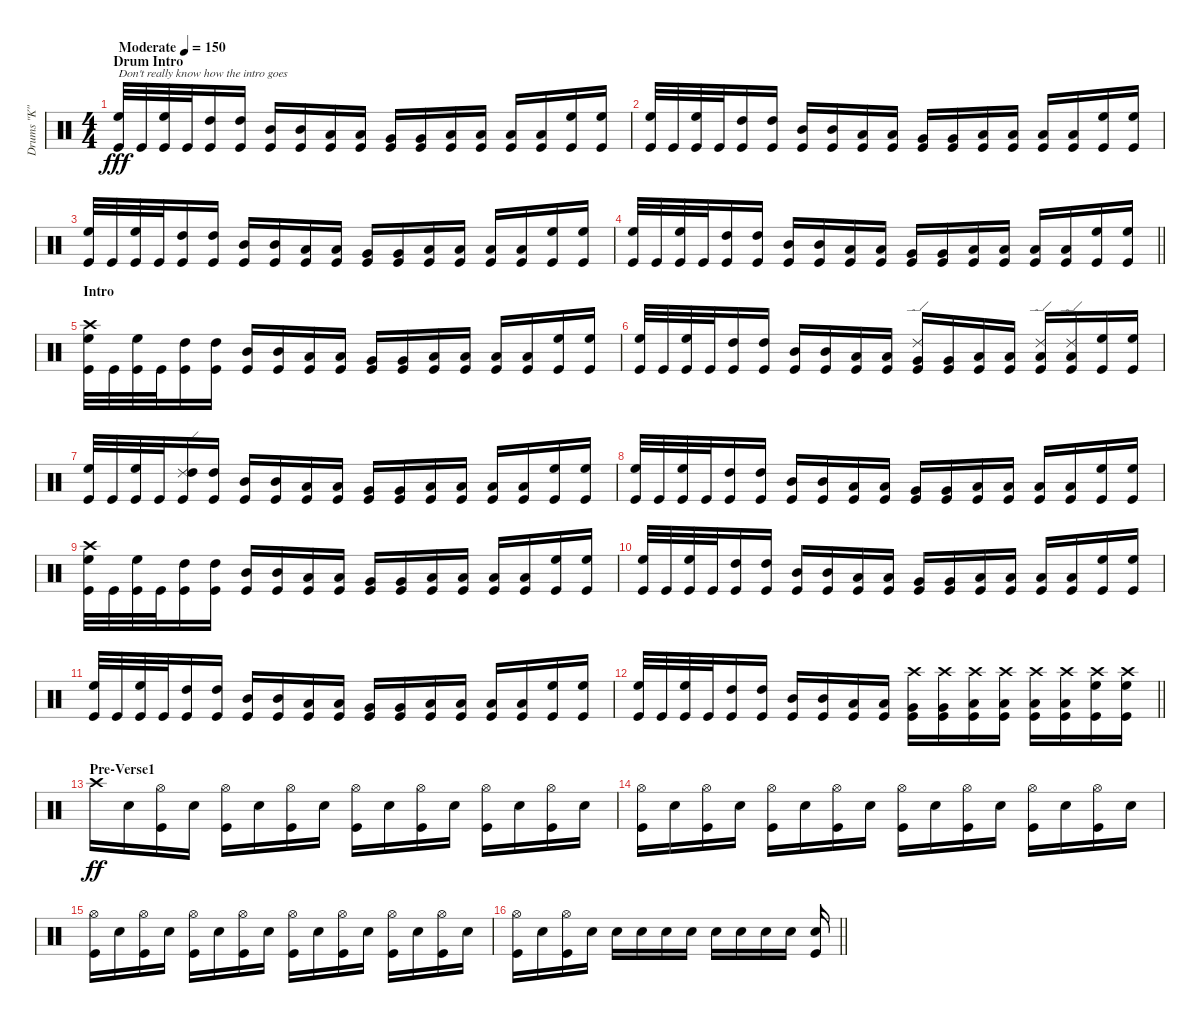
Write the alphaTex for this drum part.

\track ("Drums \"K\"" "Drums \"K\"") {instrument percussion}
\staff {score}
\articulation defaults
\ts (4 4)
\section ("" "Drum Intro")
\tempo (150 "Moderate")
\clef neutral
\ks c
("High Floor Tom (hit)" "Kick (hit)").32{txt "Don't really know how the intro goes" dy fff} "Kick (hit)".32 ("High Floor Tom (hit)" "Kick (hit)").32 "Kick (hit)".32 ("High Tom (hit)" "Kick (hit)").16 ("High Tom (hit)" "Kick (hit)").16 ("Mid Tom (hit)" "Kick (hit)").16 ("Mid Tom (hit)" "Kick (hit)").16 ("Low Tom (hit)" "Kick (hit)").16 ("Low Tom (hit)" "Kick (hit)").16 ("Very Low Tom (hit)" "Kick (hit)").16 ("Very Low Tom (hit)" "Kick (hit)").16 ("Low Floor Tom (hit)" "Kick (hit)").16 ("Low Floor Tom (hit)" "Kick (hit)").16 ("Low Floor Tom (hit)" "Kick (hit)").16 ("Low Floor Tom (hit)" "Kick (hit)").16 ("High Floor Tom (hit)" "Kick (hit)").16 ("High Floor Tom (hit)" "Kick (hit)").16 |
("High Floor Tom (hit)" "Kick (hit)").32 "Kick (hit)".32 ("High Floor Tom (hit)" "Kick (hit)").32 "Kick (hit)".32 ("High Tom (hit)" "Kick (hit)").16 ("High Tom (hit)" "Kick (hit)").16 ("Mid Tom (hit)" "Kick (hit)").16 ("Mid Tom (hit)" "Kick (hit)").16 ("Low Tom (hit)" "Kick (hit)").16 ("Low Tom (hit)" "Kick (hit)").16 ("Very Low Tom (hit)" "Kick (hit)").16 ("Very Low Tom (hit)" "Kick (hit)").16 ("Low Floor Tom (hit)" "Kick (hit)").16 ("Low Floor Tom (hit)" "Kick (hit)").16 ("Low Floor Tom (hit)" "Kick (hit)").16 ("Low Floor Tom (hit)" "Kick (hit)").16 ("High Floor Tom (hit)" "Kick (hit)").16 ("High Floor Tom (hit)" "Kick (hit)").16 |
("High Floor Tom (hit)" "Kick (hit)").32 "Kick (hit)".32 ("High Floor Tom (hit)" "Kick (hit)").32 "Kick (hit)".32 ("High Tom (hit)" "Kick (hit)").16 ("High Tom (hit)" "Kick (hit)").16 ("Mid Tom (hit)" "Kick (hit)").16 ("Mid Tom (hit)" "Kick (hit)").16 ("Low Tom (hit)" "Kick (hit)").16 ("Low Tom (hit)" "Kick (hit)").16 ("Very Low Tom (hit)" "Kick (hit)").16 ("Very Low Tom (hit)" "Kick (hit)").16 ("Low Floor Tom (hit)" "Kick (hit)").16 ("Low Floor Tom (hit)" "Kick (hit)").16 ("Low Floor Tom (hit)" "Kick (hit)").16 ("Low Floor Tom (hit)" "Kick (hit)").16 ("High Floor Tom (hit)" "Kick (hit)").16 ("High Floor Tom (hit)" "Kick (hit)").16 |
\barLineRight lightlight
("High Floor Tom (hit)" "Kick (hit)").32 "Kick (hit)".32 ("High Floor Tom (hit)" "Kick (hit)").32 "Kick (hit)".32 ("High Tom (hit)" "Kick (hit)").16 ("High Tom (hit)" "Kick (hit)").16 ("Mid Tom (hit)" "Kick (hit)").16 ("Mid Tom (hit)" "Kick (hit)").16 ("Low Tom (hit)" "Kick (hit)").16 ("Low Tom (hit)" "Kick (hit)").16 ("Very Low Tom (hit)" "Kick (hit)").16 ("Very Low Tom (hit)" "Kick (hit)").16 ("Low Floor Tom (hit)" "Kick (hit)").16 ("Low Floor Tom (hit)" "Kick (hit)").16 ("Low Floor Tom (hit)" "Kick (hit)").16 ("Low Floor Tom (hit)" "Kick (hit)").16 ("High Floor Tom (hit)" "Kick (hit)").16 ("High Floor Tom (hit)" "Kick (hit)").16 |
\section ("" "Intro")
("Crash high (hit)" "High Floor Tom (hit)" "Kick (hit)").32 "Kick (hit)".32 ("High Floor Tom (hit)" "Kick (hit)").32 "Kick (hit)".32 ("High Tom (hit)" "Kick (hit)").16 ("High Tom (hit)" "Kick (hit)").16 ("Mid Tom (hit)" "Kick (hit)").16 ("Mid Tom (hit)" "Kick (hit)").16 ("Low Tom (hit)" "Kick (hit)").16 ("Low Tom (hit)" "Kick (hit)").16 ("Very Low Tom (hit)" "Kick (hit)").16 ("Very Low Tom (hit)" "Kick (hit)").16 ("Low Floor Tom (hit)" "Kick (hit)").16 ("Low Floor Tom (hit)" "Kick (hit)").16 ("Low Floor Tom (hit)" "Kick (hit)").16 ("Low Floor Tom (hit)" "Kick (hit)").16 ("High Floor Tom (hit)" "Kick (hit)").16 ("High Floor Tom (hit)" "Kick (hit)").16 |
("High Floor Tom (hit)" "Kick (hit)").32 "Kick (hit)".32 ("High Floor Tom (hit)" "Kick (hit)").32 "Kick (hit)".32 ("High Tom (hit)" "Kick (hit)").16 ("High Tom (hit)" "Kick (hit)").16 ("Mid Tom (hit)" "Kick (hit)").16 ("Mid Tom (hit)" "Kick (hit)").16 ("Low Tom (hit)" "Kick (hit)").16 ("Low Tom (hit)" "Kick (hit)").16 ("Ride (edge) 2" "Very Low Tom (hit)" "Kick (hit)").16 ("Very Low Tom (hit)" "Kick (hit)").16 ("Low Floor Tom (hit)" "Kick (hit)").16 ("Low Floor Tom (hit)" "Kick (hit)").16 ("Ride (edge) 2" "Low Floor Tom (hit)" "Kick (hit)").16 ("Ride (edge) 2" "Low Floor Tom (hit)" "Kick (hit)").16 ("High Floor Tom (hit)" "Kick (hit)").16 ("High Floor Tom (hit)" "Kick (hit)").16 |
("High Floor Tom (hit)" "Kick (hit)").32 "Kick (hit)".32 ("High Floor Tom (hit)" "Kick (hit)").32 "Kick (hit)".32 ("Ride (edge) 2" "High Tom (hit)" "Kick (hit)").16 ("High Tom (hit)" "Kick (hit)").16 ("Mid Tom (hit)" "Kick (hit)").16 ("Mid Tom (hit)" "Kick (hit)").16 ("Low Tom (hit)" "Kick (hit)").16 ("Low Tom (hit)" "Kick (hit)").16 ("Very Low Tom (hit)" "Kick (hit)").16 ("Very Low Tom (hit)" "Kick (hit)").16 ("Low Floor Tom (hit)" "Kick (hit)").16 ("Low Floor Tom (hit)" "Kick (hit)").16 ("Low Floor Tom (hit)" "Kick (hit)").16 ("Low Floor Tom (hit)" "Kick (hit)").16 ("High Floor Tom (hit)" "Kick (hit)").16 ("High Floor Tom (hit)" "Kick (hit)").16 |
("High Floor Tom (hit)" "Kick (hit)").32 "Kick (hit)".32 ("High Floor Tom (hit)" "Kick (hit)").32 "Kick (hit)".32 ("High Tom (hit)" "Kick (hit)").16 ("High Tom (hit)" "Kick (hit)").16 ("Mid Tom (hit)" "Kick (hit)").16 ("Mid Tom (hit)" "Kick (hit)").16 ("Low Tom (hit)" "Kick (hit)").16 ("Low Tom (hit)" "Kick (hit)").16 ("Very Low Tom (hit)" "Kick (hit)").16 ("Very Low Tom (hit)" "Kick (hit)").16 ("Low Floor Tom (hit)" "Kick (hit)").16 ("Low Floor Tom (hit)" "Kick (hit)").16 ("Low Floor Tom (hit)" "Kick (hit)").16 ("Low Floor Tom (hit)" "Kick (hit)").16 ("High Floor Tom (hit)" "Kick (hit)").16 ("High Floor Tom (hit)" "Kick (hit)").16 |
("Crash high (hit)" "High Floor Tom (hit)" "Kick (hit)").32 "Kick (hit)".32 ("High Floor Tom (hit)" "Kick (hit)").32 "Kick (hit)".32 ("High Tom (hit)" "Kick (hit)").16 ("High Tom (hit)" "Kick (hit)").16 ("Mid Tom (hit)" "Kick (hit)").16 ("Mid Tom (hit)" "Kick (hit)").16 ("Low Tom (hit)" "Kick (hit)").16 ("Low Tom (hit)" "Kick (hit)").16 ("Very Low Tom (hit)" "Kick (hit)").16 ("Very Low Tom (hit)" "Kick (hit)").16 ("Low Floor Tom (hit)" "Kick (hit)").16 ("Low Floor Tom (hit)" "Kick (hit)").16 ("Low Floor Tom (hit)" "Kick (hit)").16 ("Low Floor Tom (hit)" "Kick (hit)").16 ("High Floor Tom (hit)" "Kick (hit)").16 ("High Floor Tom (hit)" "Kick (hit)").16 |
("High Floor Tom (hit)" "Kick (hit)").32 "Kick (hit)".32 ("High Floor Tom (hit)" "Kick (hit)").32 "Kick (hit)".32 ("High Tom (hit)" "Kick (hit)").16 ("High Tom (hit)" "Kick (hit)").16 ("Mid Tom (hit)" "Kick (hit)").16 ("Mid Tom (hit)" "Kick (hit)").16 ("Low Tom (hit)" "Kick (hit)").16 ("Low Tom (hit)" "Kick (hit)").16 ("Very Low Tom (hit)" "Kick (hit)").16 ("Very Low Tom (hit)" "Kick (hit)").16 ("Low Floor Tom (hit)" "Kick (hit)").16 ("Low Floor Tom (hit)" "Kick (hit)").16 ("Low Floor Tom (hit)" "Kick (hit)").16 ("Low Floor Tom (hit)" "Kick (hit)").16 ("High Floor Tom (hit)" "Kick (hit)").16 ("High Floor Tom (hit)" "Kick (hit)").16 |
("High Floor Tom (hit)" "Kick (hit)").32 "Kick (hit)".32 ("High Floor Tom (hit)" "Kick (hit)").32 "Kick (hit)".32 ("High Tom (hit)" "Kick (hit)").16 ("High Tom (hit)" "Kick (hit)").16 ("Mid Tom (hit)" "Kick (hit)").16 ("Mid Tom (hit)" "Kick (hit)").16 ("Low Tom (hit)" "Kick (hit)").16 ("Low Tom (hit)" "Kick (hit)").16 ("Very Low Tom (hit)" "Kick (hit)").16 ("Very Low Tom (hit)" "Kick (hit)").16 ("Low Floor Tom (hit)" "Kick (hit)").16 ("Low Floor Tom (hit)" "Kick (hit)").16 ("Low Floor Tom (hit)" "Kick (hit)").16 ("Low Floor Tom (hit)" "Kick (hit)").16 ("High Floor Tom (hit)" "Kick (hit)").16 ("High Floor Tom (hit)" "Kick (hit)").16 |
\barLineRight lightlight
("High Floor Tom (hit)" "Kick (hit)").32 "Kick (hit)".32 ("High Floor Tom (hit)" "Kick (hit)").32 "Kick (hit)".32 ("High Tom (hit)" "Kick (hit)").16 ("High Tom (hit)" "Kick (hit)").16 ("Mid Tom (hit)" "Kick (hit)").16 ("Mid Tom (hit)" "Kick (hit)").16 ("Low Tom (hit)" "Kick (hit)").16 ("Low Tom (hit)" "Kick (hit)").16 ("Crash high (hit)" "Very Low Tom (hit)" "Kick (hit)").16 ("Crash high (hit)" "Very Low Tom (hit)" "Kick (hit)").16 ("Crash high (hit)" "Low Floor Tom (hit)" "Kick (hit)").16 ("Crash high (hit)" "Low Floor Tom (hit)" "Kick (hit)").16 ("Crash high (hit)" "Low Floor Tom (hit)" "Kick (hit)").16 ("Crash high (hit)" "Low Floor Tom (hit)" "Kick (hit)").16 ("Crash high (hit)" "High Floor Tom (hit)" "Kick (hit)").16 ("Crash high (hit)" "High Floor Tom (hit)" "Kick (hit)").16 |
\section ("" "Pre-Verse1")
"Crash high (hit)".16{dy ff} "Snare (hit) 2".16 ("Hi-Hat (open)" "Kick (hit)").16 "Snare (hit) 2".16 ("Hi-Hat (open)" "Kick (hit)").16 "Snare (hit) 2".16 ("Hi-Hat (open)" "Kick (hit)").16 "Snare (hit) 2".16 ("Hi-Hat (open)" "Kick (hit)").16 "Snare (hit) 2".16 ("Hi-Hat (open)" "Kick (hit)").16 "Snare (hit) 2".16 ("Hi-Hat (open)" "Kick (hit)").16 "Snare (hit) 2".16 ("Hi-Hat (open)" "Kick (hit)").16 "Snare (hit) 2".16 |
("Hi-Hat (open)" "Kick (hit)").16 "Snare (hit) 2".16 ("Hi-Hat (open)" "Kick (hit)").16 "Snare (hit) 2".16 ("Hi-Hat (open)" "Kick (hit)").16 "Snare (hit) 2".16 ("Hi-Hat (open)" "Kick (hit)").16 "Snare (hit) 2".16 ("Hi-Hat (open)" "Kick (hit)").16 "Snare (hit) 2".16 ("Hi-Hat (open)" "Kick (hit)").16 "Snare (hit) 2".16 ("Hi-Hat (open)" "Kick (hit)").16 "Snare (hit) 2".16 ("Hi-Hat (open)" "Kick (hit)").16 "Snare (hit) 2".16 |
("Hi-Hat (open)" "Kick (hit)").16 "Snare (hit) 2".16 ("Hi-Hat (open)" "Kick (hit)").16 "Snare (hit) 2".16 ("Hi-Hat (open)" "Kick (hit)").16 "Snare (hit) 2".16 ("Hi-Hat (open)" "Kick (hit)").16 "Snare (hit) 2".16 ("Hi-Hat (open)" "Kick (hit)").16 "Snare (hit) 2".16 ("Hi-Hat (open)" "Kick (hit)").16 "Snare (hit) 2".16 ("Hi-Hat (open)" "Kick (hit)").16 "Snare (hit) 2".16 ("Hi-Hat (open)" "Kick (hit)").16 "Snare (hit) 2".16 |
\barLineRight lightlight
("Hi-Hat (open)" "Kick (hit)").16 "Snare (hit) 2".16 ("Hi-Hat (open)" "Kick (hit)").16 "Snare (hit) 2".16 "Snare (hit) 2".16 "Snare (hit) 2".16 "Snare (hit) 2".16 "Snare (hit) 2".16 "Snare (hit) 2".16 "Snare (hit) 2".16 "Snare (hit) 2".16 "Snare (hit) 2".16 ("Snare (hit) 2" "Kick (hit)").16
